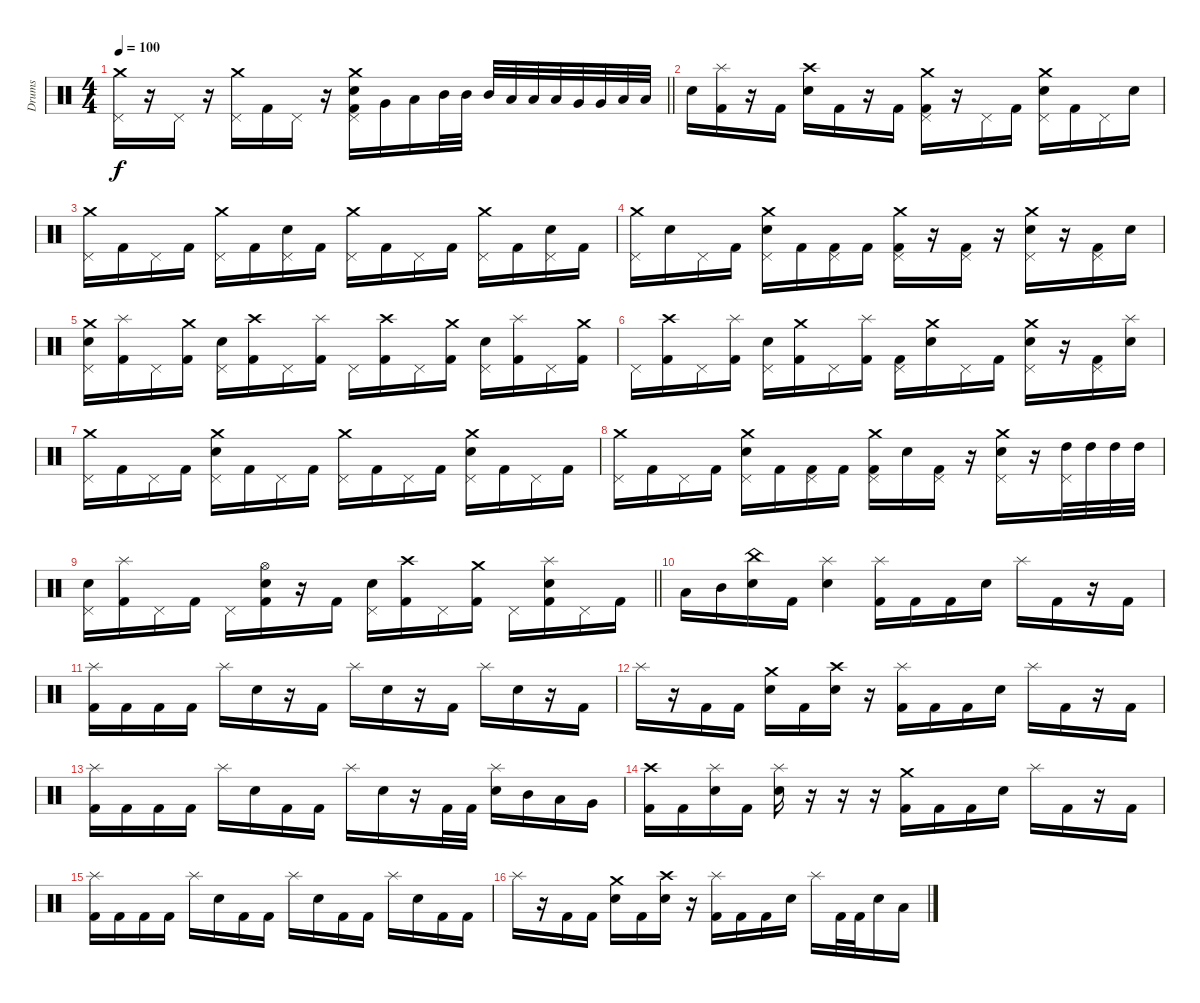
\track ("Drums" "Drums") {instrument percussion}
\staff {score}
\articulation defaults
\ts (4 4)
\tempo 100
\clef neutral
\barLineRight lightlight
\ks c
("Crash medium (hit)" "Pedal Hi-Hat (hit)").16{dy f} r.16 "Pedal Hi-Hat (hit)".16 r.16 ("Crash medium (hit)" "Pedal Hi-Hat (hit)").16 "Kick (hit) 2".16 "Pedal Hi-Hat (hit)".16 r.16 ("Crash medium (hit)" "Pedal Hi-Hat (hit)" "Electric Snare (hit)" "Kick (hit) 2").16 "Very Low Tom (hit)".16 "Low Tom (hit)".16 "Mid Tom (hit)".32 "Mid Tom (hit)".32 "Mid Tom (hit)".32 "Low Tom (hit)".32 "Low Tom (hit)".32 "Low Tom (hit)".32 "Very Low Tom (hit)".32 "Very Low Tom (hit)".32 "Low Floor Tom (hit)".32 "Low Floor Tom (hit)".32 |
\section ("" "")
"Electric Snare (hit)".16 ("Splash (hit)" "Kick (hit) 2").16 r.16 "Kick (hit) 2".16 ("Crash high (hit)" "Electric Snare (hit)").16 "Kick (hit) 2".16 r.16 "Kick (hit) 2".16 ("Crash medium (hit)" "Pedal Hi-Hat (hit)" "Kick (hit) 2").16 r.16 "Pedal Hi-Hat (hit)".16 "Kick (hit) 2".16 ("Crash medium (hit)" "Pedal Hi-Hat (hit)" "Electric Snare (hit)").16 "Kick (hit) 2".16 "Pedal Hi-Hat (hit)".16 "Electric Snare (hit)".16 |
("Crash medium (hit)" "Pedal Hi-Hat (hit)").16 "Kick (hit) 2".16 "Pedal Hi-Hat (hit)".16 "Kick (hit) 2".16 ("Crash medium (hit)" "Pedal Hi-Hat (hit)").16 "Kick (hit) 2".16 ("Pedal Hi-Hat (hit)" "Electric Snare (hit)").16 "Kick (hit) 2".16 ("Crash medium (hit)" "Pedal Hi-Hat (hit)").16 "Kick (hit) 2".16 "Pedal Hi-Hat (hit)".16 "Kick (hit) 2".16 ("Crash medium (hit)" "Pedal Hi-Hat (hit)").16 "Kick (hit) 2".16 ("Pedal Hi-Hat (hit)" "Electric Snare (hit)").16 "Kick (hit) 2".16 |
("Crash medium (hit)" "Pedal Hi-Hat (hit)").16 "Electric Snare (hit)".16 "Pedal Hi-Hat (hit)".16 "Kick (hit) 2".16 ("Crash medium (hit)" "Pedal Hi-Hat (hit)" "Electric Snare (hit)").16 "Kick (hit) 2".16 ("Pedal Hi-Hat (hit)" "Kick (hit) 2").16 "Kick (hit) 2".16 ("Crash medium (hit)" "Pedal Hi-Hat (hit)" "Kick (hit) 2").16 r.16 ("Pedal Hi-Hat (hit)" "Kick (hit) 2").16 r.16 ("Crash medium (hit)" "Pedal Hi-Hat (hit)" "Electric Snare (hit)").16 r.16 ("Pedal Hi-Hat (hit)" "Kick (hit) 2").16 "Electric Snare (hit)".16 |
("Crash medium (hit)" "Pedal Hi-Hat (hit)" "Electric Snare (hit)").16 ("Splash (hit)" "Kick (hit) 2").16 "Pedal Hi-Hat (hit)".16 ("Crash medium (hit)" "Kick (hit) 2").16 ("Pedal Hi-Hat (hit)" "Electric Snare (hit)").16 ("Crash high (hit)" "Kick (hit) 2").16 "Pedal Hi-Hat (hit)".16 ("Splash (hit)" "Kick (hit) 2").16 "Pedal Hi-Hat (hit)".16 ("Crash high (hit)" "Kick (hit) 2").16 "Pedal Hi-Hat (hit)".16 ("Crash medium (hit)" "Kick (hit) 2").16 ("Pedal Hi-Hat (hit)" "Electric Snare (hit)").16 ("Splash (hit)" "Kick (hit) 2").16 "Pedal Hi-Hat (hit)".16 ("Crash medium (hit)" "Kick (hit) 2").16 |
"Pedal Hi-Hat (hit)".16 ("Crash high (hit)" "Kick (hit) 2").16 "Pedal Hi-Hat (hit)".16 ("Splash (hit)" "Kick (hit) 2").16 ("Pedal Hi-Hat (hit)" "Electric Snare (hit)").16 ("Crash medium (hit)" "Kick (hit) 2").16 "Pedal Hi-Hat (hit)".16 ("Splash (hit)" "Kick (hit) 2").16 ("Pedal Hi-Hat (hit)" "Kick (hit) 2").16 ("Crash medium (hit)" "Electric Snare (hit)").16 "Pedal Hi-Hat (hit)".16 "Kick (hit) 2".16 ("Crash medium (hit)" "Pedal Hi-Hat (hit)" "Electric Snare (hit)").16 r.16 ("Pedal Hi-Hat (hit)" "Kick (hit) 2").16 ("Splash (hit)" "Electric Snare (hit)").16 |
("Crash medium (hit)" "Pedal Hi-Hat (hit)").16 "Kick (hit) 2".16 "Pedal Hi-Hat (hit)".16 "Kick (hit) 2".16 ("Crash medium (hit)" "Pedal Hi-Hat (hit)" "Electric Snare (hit)").16 "Kick (hit) 2".16 "Pedal Hi-Hat (hit)".16 "Kick (hit) 2".16 ("Crash medium (hit)" "Pedal Hi-Hat (hit)").16 "Kick (hit) 2".16 "Pedal Hi-Hat (hit)".16 "Kick (hit) 2".16 ("Crash medium (hit)" "Pedal Hi-Hat (hit)" "Electric Snare (hit)").16 "Kick (hit) 2".16 "Pedal Hi-Hat (hit)".16 "Kick (hit) 2".16 |
("Crash medium (hit)" "Pedal Hi-Hat (hit)").16 "Kick (hit) 2".16 "Pedal Hi-Hat (hit)".16 "Kick (hit) 2".16 ("Crash medium (hit)" "Pedal Hi-Hat (hit)" "Electric Snare (hit)").16 "Kick (hit) 2".16 ("Pedal Hi-Hat (hit)" "Kick (hit) 2").16 "Kick (hit) 2".16 ("Crash medium (hit)" "Pedal Hi-Hat (hit)" "Kick (hit) 2").16 "Electric Snare (hit)".16 ("Pedal Hi-Hat (hit)" "Kick (hit) 2").16 r.16 ("Crash medium (hit)" "Pedal Hi-Hat (hit)" "Electric Snare (hit)").16 r.16 ("High Tom (hit)" "Pedal Hi-Hat (hit)").32 "High Tom (hit)".32 "High Tom (hit)".32 "High Tom (hit)".32 |
\barLineRight lightlight
("Pedal Hi-Hat (hit)" "Electric Snare (hit)").16 ("Splash (hit)" "Kick (hit) 2").16 "Pedal Hi-Hat (hit)".16 "Kick (hit) 2".16 "Pedal Hi-Hat (hit)".16 ("Hi-Hat (open)" "Electric Snare (hit)" "Kick (hit) 2").16 r.16 "Kick (hit) 2".16 ("Pedal Hi-Hat (hit)" "Electric Snare (hit)").16 ("Crash high (hit)" "Kick (hit) 2").16 "Pedal Hi-Hat (hit)".16 ("Crash medium (hit)" "Kick (hit) 2").16 "Pedal Hi-Hat (hit)".16 ("Splash (hit)" "Electric Snare (hit)" "Kick (hit) 2").16 "Pedal Hi-Hat (hit)".16 "Kick (hit) 2".16 |
\section ("" "")
"Low Floor Tom (hit)".16 "Mid Tom (hit)".16 ("China (hit)" "Electric Snare (hit)").16 "Kick (hit) 2".16 ("Splash (hit)" "Electric Snare (hit)").4 ("Splash (hit)" "Kick (hit) 2").16 "Kick (hit) 2".16 "Kick (hit) 2".16 "Electric Snare (hit)".16 "Splash (hit)".16 "Kick (hit) 2".16 r.16 "Kick (hit) 2".16 |
("Splash (hit)" "Kick (hit) 2").16 "Kick (hit) 2".16 "Kick (hit) 2".16 "Kick (hit) 2".16 "Splash (hit)".16 "Electric Snare (hit)".16 r.16 "Kick (hit) 2".16 "Splash (hit)".16 "Electric Snare (hit)".16 r.16 "Kick (hit) 2".16 "Splash (hit)".16 "Electric Snare (hit)".16 r.16 "Kick (hit) 2".16 |
"Splash (hit)".16 r.16 "Kick (hit) 2".16 "Kick (hit) 2".16 ("Crash medium (hit)" "Electric Snare (hit)").16 "Kick (hit) 2".16 ("Crash high (hit)" "Electric Snare (hit)").16 r.16 ("Splash (hit)" "Kick (hit) 2").16 "Kick (hit) 2".16 "Kick (hit) 2".16 "Electric Snare (hit)".16 "Splash (hit)".16 "Kick (hit) 2".16 r.16 "Kick (hit) 2".16 |
("Splash (hit)" "Kick (hit) 2").16 "Kick (hit) 2".16 "Kick (hit) 2".16 "Kick (hit) 2".16 "Splash (hit)".16 "Electric Snare (hit)".16 "Kick (hit) 2".16 "Kick (hit) 2".16 "Splash (hit)".16 "Electric Snare (hit)".16 r.16 "Kick (hit) 2".32 "Kick (hit) 2".32 ("Splash (hit)" "Electric Snare (hit)").16 "Mid Tom (hit)".16 "Low Tom (hit)".16 "Very Low Tom (hit)".16 |
("Crash high (hit)" "Kick (hit) 2").16 "Kick (hit) 2".16 ("Splash (hit)" "Electric Snare (hit)").16 "Kick (hit) 2".16 ("Splash (hit)" "Electric Snare (hit)").16 r.16 r.16 r.16 ("Crash medium (hit)" "Kick (hit) 2").16 "Kick (hit) 2".16 "Kick (hit) 2".16 "Electric Snare (hit)".16 "Splash (hit)".16 "Kick (hit) 2".16 r.16 "Kick (hit) 2".16 |
("Splash (hit)" "Kick (hit) 2").16 "Kick (hit) 2".16 "Kick (hit) 2".16 "Kick (hit) 2".16 "Splash (hit)".16 "Electric Snare (hit)".16 "Kick (hit) 2".16 "Kick (hit) 2".16 "Splash (hit)".16 "Electric Snare (hit)".16 "Kick (hit) 2".16 "Kick (hit) 2".16 "Splash (hit)".16 "Electric Snare (hit)".16 "Kick (hit) 2".16 "Kick (hit) 2".16 |
"Splash (hit)".16 r.16 "Kick (hit) 2".16 "Kick (hit) 2".16 ("Crash medium (hit)" "Electric Snare (hit)").16 "Kick (hit) 2".16 ("Crash high (hit)" "Electric Snare (hit)").16 r.16 ("Splash (hit)" "Kick (hit) 2").16 "Kick (hit) 2".16 "Kick (hit) 2".16 "Electric Snare (hit)".16 "Splash (hit)".16 "Kick (hit) 2".32 "Kick (hit) 2".32 "Electric Snare (hit)".16 "Low Tom (hit)".16
